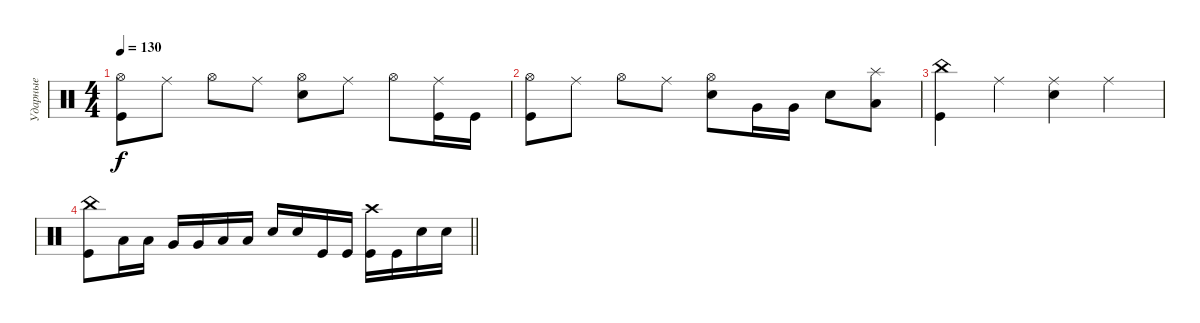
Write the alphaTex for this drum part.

\track ("Ударные" "Ударные") {instrument percussion}
\staff {score}
\articulation defaults
\ts (4 4)
\tempo 130
\clef neutral
\ks c
("Hi-Hat (open)" "Kick (hit)").8{dy f} "Ride (middle)".8 "Hi-Hat (open)".8 "Ride (middle)".8 ("Hi-Hat (open)" "Electric Snare (hit)").8 "Ride (middle)".8 "Hi-Hat (open)".8 ("Ride (middle)" "Kick (hit)").16 "Kick (hit)".16 |
("Hi-Hat (open)" "Kick (hit)").8 "Ride (middle)".8 "Hi-Hat (open)".8 "Ride (middle)".8 ("Hi-Hat (open)" "Electric Snare (hit)").8 "Very Low Tom (hit)".16 "Very Low Tom (hit)".16 "Electric Snare (hit)".8 ("Splash (hit)" "Low Floor Tom (hit)").8 |
("China (hit)" "Kick (hit)").4 "Ride (middle)".4 ("Ride (middle)" "Electric Snare (hit)").4 "Ride (middle)".4 |
\barLineRight lightlight
("China (hit)" "Kick (hit)").8 "Low Tom (hit)".16 "Low Tom (hit)".16 "Very Low Tom (hit)".16 "Very Low Tom (hit)".16 "Low Floor Tom (hit)".16 "Low Floor Tom (hit)".16 "Electric Snare (hit)".16 "Electric Snare (hit)".16 "Kick (hit)".16 "Kick (hit)".16 ("Crash high (hit)" "Kick (hit)").16 "Kick (hit)".16 "Electric Snare (hit)".16 "Electric Snare (hit)".16
